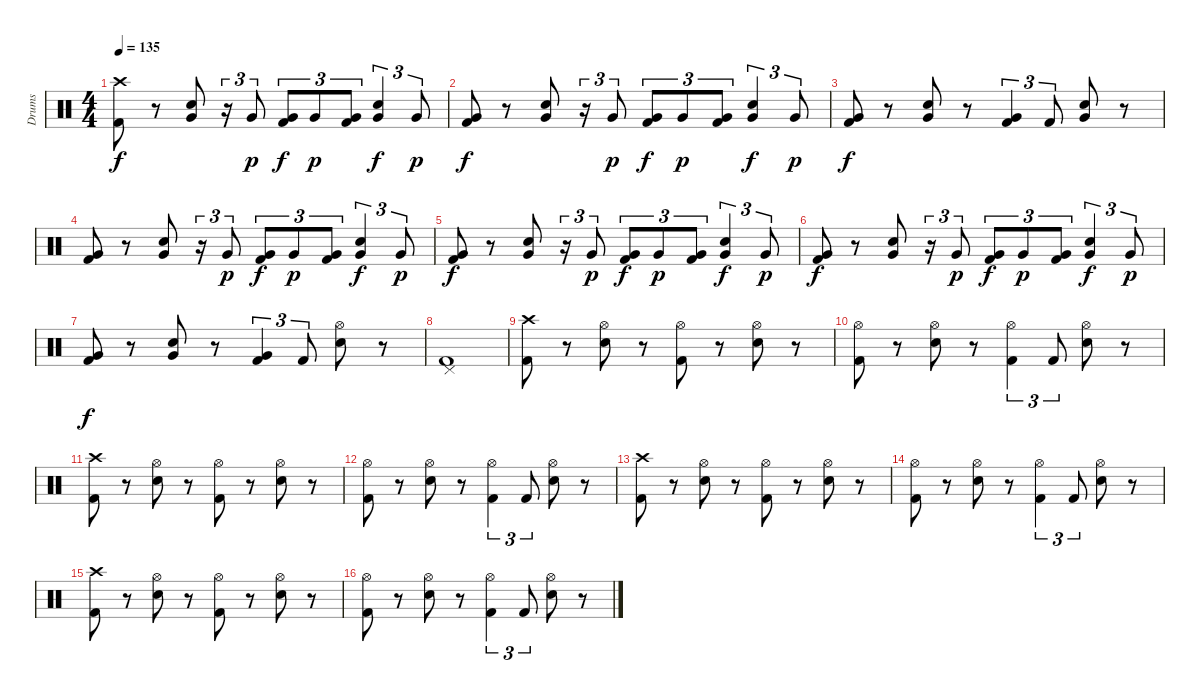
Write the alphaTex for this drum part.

\track ("Drums" "Drums") {instrument percussion}
\staff {score}
\articulation defaults
\ts (4 4)
\tempo 135
\clef neutral
\ks c
("Crash high (hit)" "Kick (hit) 2").8{dy f} r.8 ("Very Low Tom (hit)" "Electric Snare (hit)").8 r.16{tu (3 2)} "Very Low Tom (hit)".8{tu (3 2) dy p} ("Very Low Tom (hit)" "Kick (hit) 2").8{tu (3 2) dy f} "Very Low Tom (hit)".8{tu (3 2) dy p} ("Very Low Tom (hit)" "Kick (hit) 2").8{tu (3 2)} ("Very Low Tom (hit)" "Electric Snare (hit)").4{tu (3 2) dy f} "Very Low Tom (hit)".8{tu (3 2) dy p} |
("Very Low Tom (hit)" "Kick (hit) 2").8{dy f} r.8 ("Very Low Tom (hit)" "Electric Snare (hit)").8 r.16{tu (3 2)} "Very Low Tom (hit)".8{tu (3 2) dy p} ("Very Low Tom (hit)" "Kick (hit) 2").8{tu (3 2) dy f} "Very Low Tom (hit)".8{tu (3 2) dy p} ("Very Low Tom (hit)" "Kick (hit) 2").8{tu (3 2)} ("Very Low Tom (hit)" "Electric Snare (hit)").4{tu (3 2) dy f} "Very Low Tom (hit)".8{tu (3 2) dy p} |
("Very Low Tom (hit)" "Kick (hit) 2").8{dy f} r.8 ("Very Low Tom (hit)" "Electric Snare (hit)").8 r.8 ("Very Low Tom (hit)" "Kick (hit) 2").4{tu (3 2)} "Kick (hit) 2".8{tu (3 2)} ("Very Low Tom (hit)" "Electric Snare (hit)").8 r.8 |
("Very Low Tom (hit)" "Kick (hit) 2").8 r.8 ("Very Low Tom (hit)" "Electric Snare (hit)").8 r.16{tu (3 2)} "Very Low Tom (hit)".8{tu (3 2) dy p} ("Very Low Tom (hit)" "Kick (hit) 2").8{tu (3 2) dy f} "Very Low Tom (hit)".8{tu (3 2) dy p} ("Very Low Tom (hit)" "Kick (hit) 2").8{tu (3 2)} ("Very Low Tom (hit)" "Electric Snare (hit)").4{tu (3 2) dy f} "Very Low Tom (hit)".8{tu (3 2) dy p} |
("Very Low Tom (hit)" "Kick (hit) 2").8{dy f} r.8 ("Very Low Tom (hit)" "Electric Snare (hit)").8 r.16{tu (3 2)} "Very Low Tom (hit)".8{tu (3 2) dy p} ("Very Low Tom (hit)" "Kick (hit) 2").8{tu (3 2) dy f} "Very Low Tom (hit)".8{tu (3 2) dy p} ("Very Low Tom (hit)" "Kick (hit) 2").8{tu (3 2)} ("Very Low Tom (hit)" "Electric Snare (hit)").4{tu (3 2) dy f} "Very Low Tom (hit)".8{tu (3 2) dy p} |
("Very Low Tom (hit)" "Kick (hit) 2").8{dy f} r.8 ("Very Low Tom (hit)" "Electric Snare (hit)").8 r.16{tu (3 2)} "Very Low Tom (hit)".8{tu (3 2) dy p} ("Very Low Tom (hit)" "Kick (hit) 2").8{tu (3 2) dy f} "Very Low Tom (hit)".8{tu (3 2) dy p} ("Very Low Tom (hit)" "Kick (hit) 2").8{tu (3 2)} ("Very Low Tom (hit)" "Electric Snare (hit)").4{tu (3 2) dy f} "Very Low Tom (hit)".8{tu (3 2) dy p} |
("Very Low Tom (hit)" "Kick (hit) 2").8{dy f} r.8 ("Very Low Tom (hit)" "Electric Snare (hit)").8 r.8 ("Very Low Tom (hit)" "Kick (hit) 2").4{tu (3 2)} "Kick (hit) 2".8{tu (3 2)} ("Hi-Hat (open)" "Electric Snare (hit)").8 r.8 |
("Pedal Hi-Hat (hit)" "Kick (hit) 2").1 |
("Crash high (hit)" "Kick (hit) 2").8 r.8 ("Hi-Hat (open)" "Electric Snare (hit)").8 r.8 ("Hi-Hat (open)" "Kick (hit) 2").8 r.8 ("Hi-Hat (open)" "Electric Snare (hit)").8 r.8 |
("Hi-Hat (open)" "Kick (hit) 2").8 r.8 ("Hi-Hat (open)" "Electric Snare (hit)").8 r.8 ("Hi-Hat (open)" "Kick (hit) 2").4{tu (3 2)} "Kick (hit) 2".8{tu (3 2)} ("Hi-Hat (open)" "Electric Snare (hit)").8 r.8 |
("Crash high (hit)" "Kick (hit) 2").8 r.8 ("Hi-Hat (open)" "Electric Snare (hit)").8 r.8 ("Hi-Hat (open)" "Kick (hit) 2").8 r.8 ("Hi-Hat (open)" "Electric Snare (hit)").8 r.8 |
("Hi-Hat (open)" "Kick (hit) 2").8 r.8 ("Hi-Hat (open)" "Electric Snare (hit)").8 r.8 ("Hi-Hat (open)" "Kick (hit) 2").4{tu (3 2)} "Kick (hit) 2".8{tu (3 2)} ("Hi-Hat (open)" "Electric Snare (hit)").8 r.8 |
("Crash high (hit)" "Kick (hit) 2").8 r.8 ("Hi-Hat (open)" "Electric Snare (hit)").8 r.8 ("Hi-Hat (open)" "Kick (hit) 2").8 r.8 ("Hi-Hat (open)" "Electric Snare (hit)").8 r.8 |
("Hi-Hat (open)" "Kick (hit) 2").8 r.8 ("Hi-Hat (open)" "Electric Snare (hit)").8 r.8 ("Hi-Hat (open)" "Kick (hit) 2").4{tu (3 2)} "Kick (hit) 2".8{tu (3 2)} ("Hi-Hat (open)" "Electric Snare (hit)").8 r.8 |
("Crash high (hit)" "Kick (hit) 2").8 r.8 ("Hi-Hat (open)" "Electric Snare (hit)").8 r.8 ("Hi-Hat (open)" "Kick (hit) 2").8 r.8 ("Hi-Hat (open)" "Electric Snare (hit)").8 r.8 |
("Hi-Hat (open)" "Kick (hit) 2").8 r.8 ("Hi-Hat (open)" "Electric Snare (hit)").8 r.8 ("Hi-Hat (open)" "Kick (hit) 2").4{tu (3 2)} "Kick (hit) 2".8{tu (3 2)} ("Hi-Hat (open)" "Electric Snare (hit)").8 r.8
